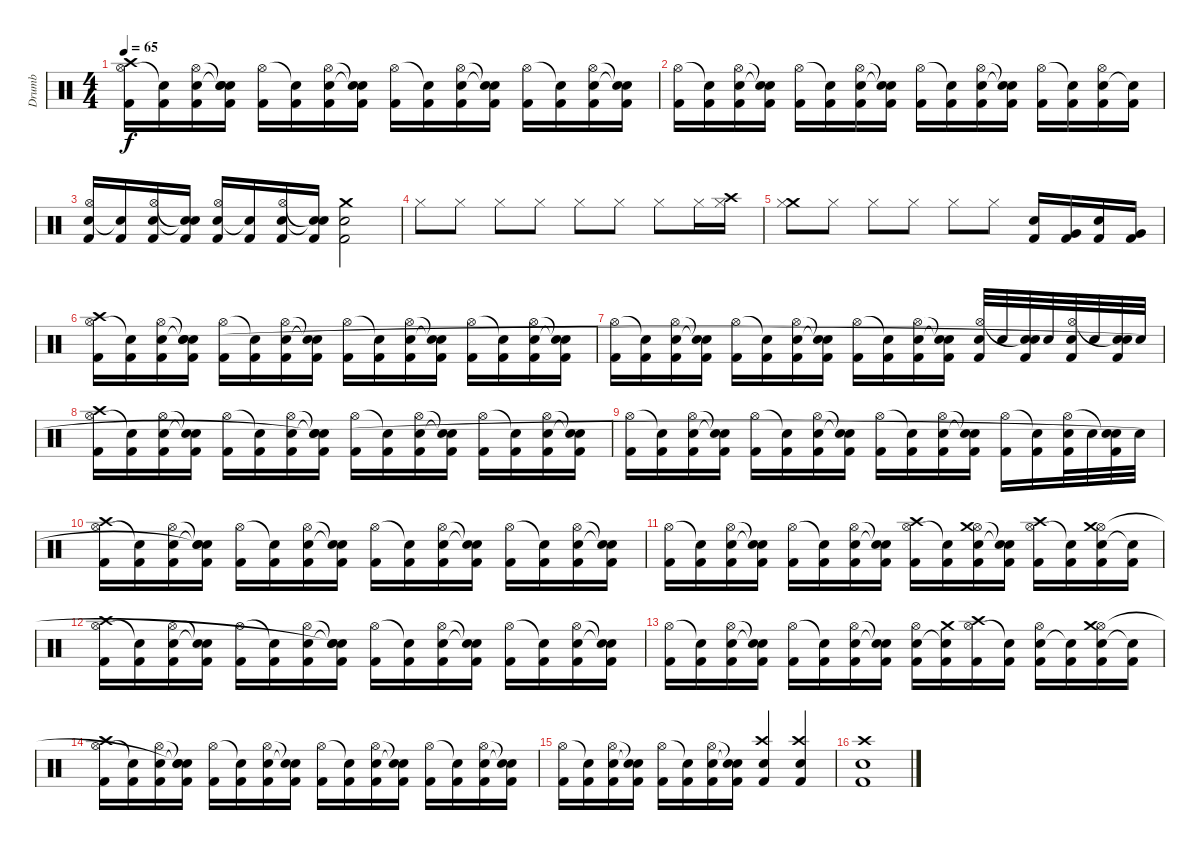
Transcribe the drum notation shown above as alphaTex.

\track ("Drumb" "Drumb") {instrument percussion}
\staff {score}
\articulation defaults
\ts (4 4)
\tempo 65
\clef neutral
\ks c
("Kick (hit) 2" "Hi-Hat (open)" "Crash high (hit)").16{dy f} ("Kick (hit) 2" "Snare (hit)"{t}).16 ("Kick (hit) 2" "Electric Snare (hit)" "Hi-Hat (open)").16 ("Kick (hit) 2" "Snare (hit)"{t} "Snare (hit)"{t} "Snare (hit)"{t}).16 ("Kick (hit) 2" "Hi-Hat (open)").16 ("Kick (hit) 2" "Snare (hit)"{t}).16 ("Kick (hit) 2" "Electric Snare (hit)" "Hi-Hat (open)").16 ("Kick (hit) 2" "Snare (hit)"{t} "Snare (hit)"{t}).16 ("Kick (hit) 2" "Hi-Hat (open)").16 ("Kick (hit) 2" "Snare (hit)"{t}).16 ("Kick (hit) 2" "Electric Snare (hit)" "Hi-Hat (open)").16 ("Kick (hit) 2" "Snare (hit)"{t} "Snare (hit)"{t}).16 ("Kick (hit) 2" "Hi-Hat (open)").16 ("Kick (hit) 2" "Snare (hit)"{t}).16 ("Kick (hit) 2" "Electric Snare (hit)" "Hi-Hat (open)").16 ("Kick (hit) 2" "Snare (hit)"{t} "Snare (hit)"{t}).16 |
("Kick (hit) 2" "Hi-Hat (open)").16 ("Kick (hit) 2" "Snare (hit)"{t}).16 ("Kick (hit) 2" "Electric Snare (hit)" "Hi-Hat (open)").16 ("Kick (hit) 2" "Snare (hit)"{t} "Snare (hit)"{t}).16 ("Kick (hit) 2" "Hi-Hat (open)").16 ("Kick (hit) 2" "Snare (hit)"{t}).16 ("Kick (hit) 2" "Electric Snare (hit)" "Hi-Hat (open)").16 ("Kick (hit) 2" "Snare (hit)"{t} "Snare (hit)"{t}).16 ("Kick (hit) 2" "Hi-Hat (open)").16 ("Kick (hit) 2" "Snare (hit)"{t}).16 ("Kick (hit) 2" "Electric Snare (hit)" "Hi-Hat (open)").16 ("Kick (hit) 2" "Snare (hit)"{t} "Snare (hit)"{t}).16 ("Kick (hit) 2" "Hi-Hat (open)").16 ("Kick (hit) 2" "Snare (hit)"{t}).16 ("Kick (hit) 2" "Electric Snare (hit)" "Hi-Hat (open)").16 ("Kick (hit) 2" "Snare (hit)"{t}).16 |
("Kick (hit) 2" "Electric Snare (hit)" "Hi-Hat (open)").16 ("Kick (hit) 2" "Snare (hit)"{t}).16 ("Kick (hit) 2" "Electric Snare (hit)" "Hi-Hat (open)").16 ("Kick (hit) 2" "Snare (hit)"{t} "Snare (hit)"{t}).16 ("Kick (hit) 2" "Electric Snare (hit)" "Hi-Hat (open)").16 ("Kick (hit) 2" "Snare (hit)"{t}).16 ("Kick (hit) 2" "Electric Snare (hit)" "Hi-Hat (open)").16 ("Kick (hit) 2" "Snare (hit)"{t} "Snare (hit)"{t}).16 ("Kick (hit) 2" "Electric Snare (hit)" "Crash medium (hit)").2 |
"Hi-Hat (closed)".8 "Hi-Hat (closed)".8 "Hi-Hat (closed)".8 "Hi-Hat (closed)".8 "Hi-Hat (closed)".8 "Hi-Hat (closed)".8 "Hi-Hat (closed)".8 "Hi-Hat (closed)".16 ("Crash high (hit)" "Hi-Hat (closed)").16 |
("Crash medium (hit)" "Hi-Hat (closed)").8 "Hi-Hat (closed)".8 "Hi-Hat (closed)".8 "Hi-Hat (closed)".8 "Hi-Hat (closed)".8 "Hi-Hat (closed)".8 ("Kick (hit) 2" "Electric Snare (hit)").16 ("Kick (hit) 2" "Very Low Tom (hit)").16 ("Kick (hit) 2" "Electric Snare (hit)").16 ("Kick (hit) 2" "Very Low Tom (hit)").16 |
("Kick (hit) 2" "Hi-Hat (open)" "Crash high (hit)").16 ("Kick (hit) 2" "Snare (hit)"{t}).16 ("Kick (hit) 2" "Electric Snare (hit)" "Hi-Hat (open)").16 ("Kick (hit) 2" "Snare (hit)"{t} "Snare (hit)"{t} "Snare (hit)").16 ("Kick (hit) 2" "Hi-Hat (open)").16 ("Kick (hit) 2" "Snare (hit)"{t}).16 ("Kick (hit) 2" "Electric Snare (hit)" "Hi-Hat (open)").16 ("Kick (hit) 2" "Snare (hit)"{t} "Snare (hit)"{t}).16 ("Kick (hit) 2" "Hi-Hat (open)").16 ("Kick (hit) 2" "Snare (hit)"{t}).16 ("Kick (hit) 2" "Electric Snare (hit)" "Hi-Hat (open)").16 ("Kick (hit) 2" "Snare (hit)"{t} "Snare (hit)"{t}).16 ("Kick (hit) 2" "Hi-Hat (open)").16 ("Kick (hit) 2" "Snare (hit)"{t}).16 ("Kick (hit) 2" "Electric Snare (hit)" "Hi-Hat (open)").16 ("Kick (hit) 2" "Snare (hit)"{t} "Snare (hit)"{t}).16 |
("Kick (hit) 2" "Hi-Hat (open)").16 ("Kick (hit) 2" "Snare (hit)"{t}).16 ("Kick (hit) 2" "Electric Snare (hit)" "Hi-Hat (open)").16 ("Kick (hit) 2" "Snare (hit)"{t} "Snare (hit)"{t}).16 ("Kick (hit) 2" "Hi-Hat (open)").16 ("Kick (hit) 2" "Snare (hit)"{t}).16 ("Kick (hit) 2" "Electric Snare (hit)" "Hi-Hat (open)").16 ("Kick (hit) 2" "Snare (hit)"{t} "Snare (hit)"{t}).16 ("Kick (hit) 2" "Hi-Hat (open)").16 ("Kick (hit) 2" "Snare (hit)"{t}).16 ("Kick (hit) 2" "Electric Snare (hit)" "Hi-Hat (open)").16 ("Kick (hit) 2" "Snare (hit)"{t} "Snare (hit)"{t}).16 ("Kick (hit) 2" "Electric Snare (hit)" "Hi-Hat (open)").32 "Electric Snare (hit)".32 ("Kick (hit) 2" "Electric Snare (hit)" "Snare (hit)"{t}).32 "Electric Snare (hit)".32 ("Kick (hit) 2" "Electric Snare (hit)" "Hi-Hat (open)").32 "Electric Snare (hit)".32 ("Kick (hit) 2" "Electric Snare (hit)" "Snare (hit)"{t}).32 "Electric Snare (hit)".32 |
("Kick (hit) 2" "Hi-Hat (open)" "Crash high (hit)").16 ("Kick (hit) 2" "Snare (hit)"{t}).16 ("Kick (hit) 2" "Electric Snare (hit)" "Hi-Hat (open)").16 ("Kick (hit) 2" "Snare (hit)"{t} "Snare (hit)"{t}).16 ("Kick (hit) 2" "Hi-Hat (open)").16 ("Kick (hit) 2" "Snare (hit)"{t}).16 ("Kick (hit) 2" "Electric Snare (hit)" "Hi-Hat (open)").16 ("Kick (hit) 2" "Snare (hit)"{t} "Snare (hit)"{t} "Snare (hit)"{t}).16 ("Kick (hit) 2" "Hi-Hat (open)").16 ("Kick (hit) 2" "Snare (hit)"{t}).16 ("Kick (hit) 2" "Electric Snare (hit)" "Hi-Hat (open)").16 ("Kick (hit) 2" "Snare (hit)"{t} "Snare (hit)"{t}).16 ("Kick (hit) 2" "Hi-Hat (open)").16 ("Kick (hit) 2" "Snare (hit)"{t}).16 ("Kick (hit) 2" "Electric Snare (hit)" "Hi-Hat (open)").16 ("Kick (hit) 2" "Snare (hit)"{t} "Snare (hit)"{t}).16 |
("Kick (hit) 2" "Hi-Hat (open)").16 ("Kick (hit) 2" "Snare (hit)"{t}).16 ("Kick (hit) 2" "Electric Snare (hit)" "Hi-Hat (open)").16 ("Kick (hit) 2" "Snare (hit)"{t} "Snare (hit)"{t}).16 ("Kick (hit) 2" "Hi-Hat (open)").16 ("Kick (hit) 2" "Snare (hit)"{t}).16 ("Kick (hit) 2" "Electric Snare (hit)" "Hi-Hat (open)").16 ("Kick (hit) 2" "Snare (hit)"{t} "Snare (hit)"{t}).16 ("Kick (hit) 2" "Hi-Hat (open)").16 ("Kick (hit) 2" "Snare (hit)"{t}).16 ("Kick (hit) 2" "Electric Snare (hit)" "Hi-Hat (open)").16 ("Kick (hit) 2" "Snare (hit)"{t} "Snare (hit)"{t}).16 ("Kick (hit) 2" "Hi-Hat (open)").16 ("Kick (hit) 2" "Snare (hit)"{t}).16 ("Kick (hit) 2" "Electric Snare (hit)" "Hi-Hat (open)").32 "Electric Snare (hit)".32 ("Kick (hit) 2" "Electric Snare (hit)" "Snare (hit)"{t}).32 "Electric Snare (hit)".32 |
("Kick (hit) 2" "Hi-Hat (open)" "Crash high (hit)").16 ("Kick (hit) 2" "Snare (hit)"{t}).16 ("Kick (hit) 2" "Electric Snare (hit)" "Hi-Hat (open)").16 ("Kick (hit) 2" "Snare (hit)"{t} "Snare (hit)"{t} "Snare (hit)"{t}).16 ("Kick (hit) 2" "Hi-Hat (open)").16 ("Kick (hit) 2" "Snare (hit)"{t}).16 ("Kick (hit) 2" "Electric Snare (hit)" "Hi-Hat (open)").16 ("Kick (hit) 2" "Snare (hit)"{t} "Snare (hit)"{t}).16 ("Kick (hit) 2" "Hi-Hat (open)").16 ("Kick (hit) 2" "Snare (hit)"{t}).16 ("Kick (hit) 2" "Electric Snare (hit)" "Hi-Hat (open)").16 ("Kick (hit) 2" "Snare (hit)"{t} "Snare (hit)"{t}).16 ("Kick (hit) 2" "Hi-Hat (open)").16 ("Kick (hit) 2" "Snare (hit)"{t}).16 ("Kick (hit) 2" "Electric Snare (hit)" "Hi-Hat (open)").16 ("Kick (hit) 2" "Snare (hit)"{t} "Snare (hit)"{t}).16 |
("Kick (hit) 2" "Hi-Hat (open)").16 ("Kick (hit) 2" "Snare (hit)"{t}).16 ("Kick (hit) 2" "Electric Snare (hit)" "Hi-Hat (open)").16 ("Kick (hit) 2" "Snare (hit)"{t} "Snare (hit)"{t}).16 ("Kick (hit) 2" "Hi-Hat (open)").16 ("Kick (hit) 2" "Snare (hit)"{t}).16 ("Kick (hit) 2" "Electric Snare (hit)" "Hi-Hat (open)").16 ("Kick (hit) 2" "Snare (hit)"{t} "Snare (hit)"{t}).16 ("Kick (hit) 2" "Hi-Hat (open)" "Crash high (hit)").16 ("Kick (hit) 2" "Snare (hit)"{t}).16 ("Kick (hit) 2" "Electric Snare (hit)" "Hi-Hat (open)" "Crash medium (hit)").16 ("Kick (hit) 2" "Snare (hit)"{t} "Snare (hit)"{t}).16 ("Kick (hit) 2" "Hi-Hat (open)" "Crash high (hit)").16 ("Kick (hit) 2" "Snare (hit)"{t}).16 ("Kick (hit) 2" "Electric Snare (hit)" "Hi-Hat (open)" "Crash medium (hit)").16 ("Kick (hit) 2" "Snare (hit)"{t}).16 |
("Kick (hit) 2" "Hi-Hat (open)" "Crash high (hit)").16 ("Kick (hit) 2" "Snare (hit)"{t}).16 ("Kick (hit) 2" "Electric Snare (hit)" "Hi-Hat (open)").16 ("Kick (hit) 2" "Snare (hit)"{t} "Snare (hit)"{t}).16 ("Kick (hit) 2" "Hi-Hat (open)").16 ("Kick (hit) 2" "Snare (hit)"{t}).16 ("Kick (hit) 2" "Electric Snare (hit)" "Hi-Hat (open)").16 ("Kick (hit) 2" "Snare (hit)"{t} "Snare (hit)"{t} "Snare (hit)"{t}).16 ("Kick (hit) 2" "Hi-Hat (open)").16 ("Kick (hit) 2" "Snare (hit)"{t}).16 ("Kick (hit) 2" "Electric Snare (hit)" "Hi-Hat (open)").16 ("Kick (hit) 2" "Snare (hit)"{t} "Snare (hit)"{t}).16 ("Kick (hit) 2" "Hi-Hat (open)").16 ("Kick (hit) 2" "Snare (hit)"{t}).16 ("Kick (hit) 2" "Electric Snare (hit)" "Hi-Hat (open)").16 ("Kick (hit) 2" "Snare (hit)"{t} "Snare (hit)"{t}).16 |
("Kick (hit) 2" "Hi-Hat (open)").16 ("Kick (hit) 2" "Snare (hit)"{t}).16 ("Kick (hit) 2" "Electric Snare (hit)" "Hi-Hat (open)").16 ("Kick (hit) 2" "Snare (hit)"{t} "Snare (hit)"{t}).16 ("Kick (hit) 2" "Hi-Hat (open)").16 ("Kick (hit) 2" "Snare (hit)"{t}).16 ("Kick (hit) 2" "Electric Snare (hit)" "Hi-Hat (open)").16 ("Kick (hit) 2" "Snare (hit)"{t} "Snare (hit)"{t}).16 ("Kick (hit) 2" "Electric Snare (hit)" "Hi-Hat (open)").16 ("Kick (hit) 2" "Snare (hit)"{t} "Crash medium (hit)").16 ("Kick (hit) 2" "Hi-Hat (open)" "Crash high (hit)").16 ("Kick (hit) 2" "Snare (hit)"{t}).16 ("Kick (hit) 2" "Electric Snare (hit)" "Hi-Hat (open)").16 ("Kick (hit) 2" "Snare (hit)"{t}).16 ("Kick (hit) 2" "Electric Snare (hit)" "Hi-Hat (open)" "Crash medium (hit)").16 ("Kick (hit) 2" "Snare (hit)"{t}).16 |
("Kick (hit) 2" "Hi-Hat (open)" "Crash high (hit)").16 ("Kick (hit) 2" "Snare (hit)"{t}).16 ("Kick (hit) 2" "Electric Snare (hit)" "Hi-Hat (open)").16 ("Kick (hit) 2" "Snare (hit)"{t} "Snare (hit)"{t} "Snare (hit)"{t}).16 ("Kick (hit) 2" "Hi-Hat (open)").16 ("Kick (hit) 2" "Snare (hit)"{t}).16 ("Kick (hit) 2" "Electric Snare (hit)" "Hi-Hat (open)").16 ("Kick (hit) 2" "Snare (hit)"{t} "Snare (hit)"{t}).16 ("Kick (hit) 2" "Hi-Hat (open)").16 ("Kick (hit) 2" "Snare (hit)"{t}).16 ("Kick (hit) 2" "Electric Snare (hit)" "Hi-Hat (open)").16 ("Kick (hit) 2" "Snare (hit)"{t} "Snare (hit)"{t}).16 ("Kick (hit) 2" "Hi-Hat (open)").16 ("Kick (hit) 2" "Snare (hit)"{t}).16 ("Kick (hit) 2" "Electric Snare (hit)" "Hi-Hat (open)").16 ("Kick (hit) 2" "Snare (hit)"{t} "Snare (hit)"{t}).16 |
("Kick (hit) 2" "Hi-Hat (open)").16 ("Kick (hit) 2" "Snare (hit)"{t}).16 ("Kick (hit) 2" "Electric Snare (hit)" "Hi-Hat (open)").16 ("Kick (hit) 2" "Snare (hit)"{t} "Snare (hit)"{t}).16 ("Kick (hit) 2" "Hi-Hat (open)").16 ("Kick (hit) 2" "Snare (hit)"{t}).16 ("Kick (hit) 2" "Electric Snare (hit)" "Hi-Hat (open)").16 ("Kick (hit) 2" "Snare (hit)"{t} "Snare (hit)"{t}).16 ("Kick (hit) 2" "Electric Snare (hit)" "Crash high (hit)").4 ("Kick (hit) 2" "Electric Snare (hit)" "Crash high (hit)").4 |
("Kick (hit) 2" "Electric Snare (hit)" "Crash high (hit)").1
